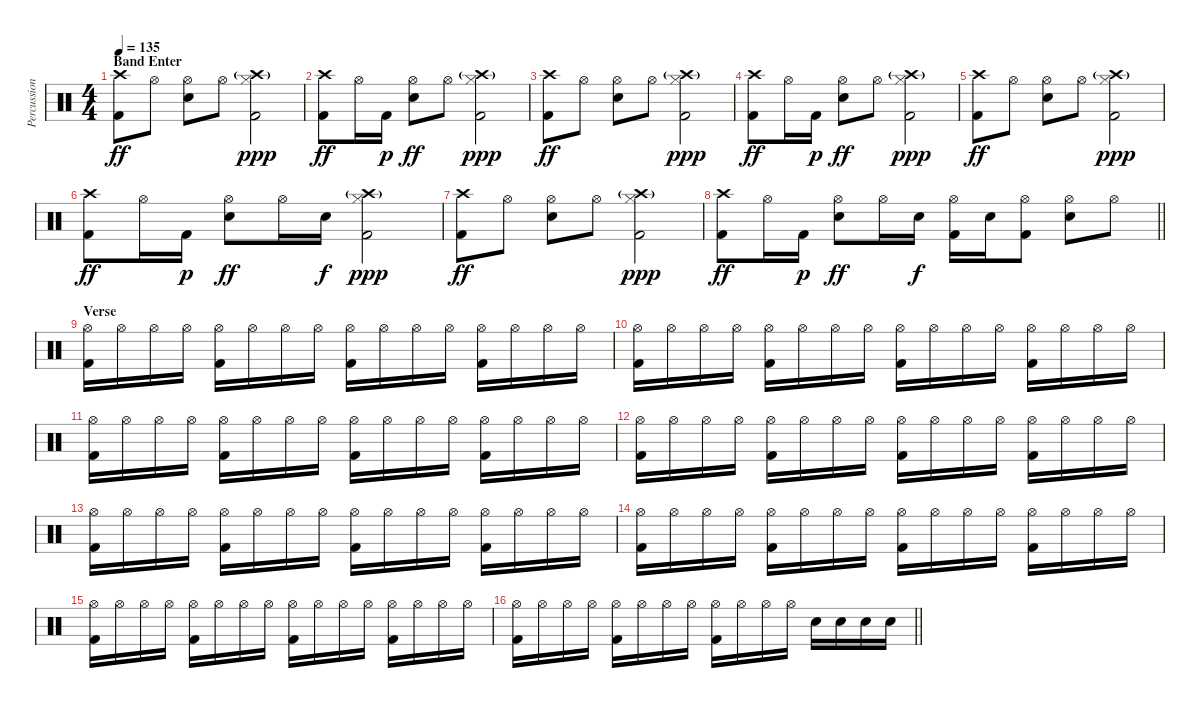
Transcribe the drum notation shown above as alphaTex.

\track ("Percussion" "Percussion") {instrument percussion}
\staff {score}
\articulation defaults
\ts (4 4)
\section ("" "Band Enter")
\tempo 135
\clef neutral
\ks c
("Crash high (hit)" "Kick (hit) 2").8{dy ff} "Hi-Hat (open)".8 ("Hi-Hat (open)" "Electric Snare (hit)").8 "Hi-Hat (open)".8 ("Crash high (hit)"{g} "Hi-Hat (closed)" "Kick (hit) 2").2{dy ppp} |
("Crash high (hit)" "Kick (hit) 2").8{dy ff} "Hi-Hat (open)".16 "Kick (hit) 2".16{dy p} ("Hi-Hat (open)" "Electric Snare (hit)").8{dy ff} "Hi-Hat (open)".8 ("Crash high (hit)"{g} "Hi-Hat (closed)" "Kick (hit) 2").2{dy ppp} |
("Crash high (hit)" "Kick (hit) 2").8{dy ff} "Hi-Hat (open)".8 ("Hi-Hat (open)" "Electric Snare (hit)").8 "Hi-Hat (open)".8 ("Crash high (hit)"{g} "Hi-Hat (closed)" "Kick (hit) 2").2{dy ppp} |
("Crash high (hit)" "Kick (hit) 2").8{dy ff} "Hi-Hat (open)".16 "Kick (hit) 2".16{dy p} ("Hi-Hat (open)" "Electric Snare (hit)").8{dy ff} "Hi-Hat (open)".8 ("Crash high (hit)"{g} "Hi-Hat (closed)" "Kick (hit) 2").2{dy ppp} |
("Crash high (hit)" "Kick (hit) 2").8{dy ff} "Hi-Hat (open)".8 ("Hi-Hat (open)" "Electric Snare (hit)").8 "Hi-Hat (open)".8 ("Crash high (hit)"{g} "Hi-Hat (closed)" "Kick (hit) 2").2{dy ppp} |
("Crash high (hit)" "Kick (hit) 2").8{dy ff} "Hi-Hat (open)".16 "Kick (hit) 2".16{dy p} ("Hi-Hat (open)" "Electric Snare (hit)").8{dy ff} "Hi-Hat (open)".16 "Electric Snare (hit)".16{dy f} ("Crash high (hit)"{g} "Hi-Hat (closed)" "Kick (hit) 2").2{dy ppp} |
("Crash high (hit)" "Kick (hit) 2").8{dy ff} "Hi-Hat (open)".8 ("Hi-Hat (open)" "Electric Snare (hit)").8 "Hi-Hat (open)".8 ("Crash high (hit)"{g} "Hi-Hat (closed)" "Kick (hit) 2").2{dy ppp} |
\barLineRight lightlight
("Crash high (hit)" "Kick (hit) 2").8{dy ff} "Hi-Hat (open)".16 "Kick (hit) 2".16{dy p} ("Hi-Hat (open)" "Electric Snare (hit)").8{dy ff} "Hi-Hat (open)".16 "Electric Snare (hit)".16{dy f} ("Hi-Hat (open)" "Kick (hit) 2").16 "Electric Snare (hit)".16 ("Hi-Hat (open)" "Kick (hit) 2").8 ("Hi-Hat (open)" "Electric Snare (hit)").8 "Hi-Hat (open)".8 |
\section ("" "Verse")
("Hi-Hat (open)" "Kick (hit) 2").16 "Hi-Hat (open)".16 "Hi-Hat (open)".16 "Hi-Hat (open)".16 ("Hi-Hat (open)" "Kick (hit) 2").16 "Hi-Hat (open)".16 "Hi-Hat (open)".16 "Hi-Hat (open)".16 ("Hi-Hat (open)" "Kick (hit) 2").16 "Hi-Hat (open)".16 "Hi-Hat (open)".16 "Hi-Hat (open)".16 ("Hi-Hat (open)" "Kick (hit) 2").16 "Hi-Hat (open)".16 "Hi-Hat (open)".16 "Hi-Hat (open)".16 |
("Hi-Hat (open)" "Kick (hit) 2").16 "Hi-Hat (open)".16 "Hi-Hat (open)".16 "Hi-Hat (open)".16 ("Hi-Hat (open)" "Kick (hit) 2").16 "Hi-Hat (open)".16 "Hi-Hat (open)".16 "Hi-Hat (open)".16 ("Hi-Hat (open)" "Kick (hit) 2").16 "Hi-Hat (open)".16 "Hi-Hat (open)".16 "Hi-Hat (open)".16 ("Hi-Hat (open)" "Kick (hit) 2").16 "Hi-Hat (open)".16 "Hi-Hat (open)".16 "Hi-Hat (open)".16 |
("Hi-Hat (open)" "Kick (hit) 2").16 "Hi-Hat (open)".16 "Hi-Hat (open)".16 "Hi-Hat (open)".16 ("Hi-Hat (open)" "Kick (hit) 2").16 "Hi-Hat (open)".16 "Hi-Hat (open)".16 "Hi-Hat (open)".16 ("Hi-Hat (open)" "Kick (hit) 2").16 "Hi-Hat (open)".16 "Hi-Hat (open)".16 "Hi-Hat (open)".16 ("Hi-Hat (open)" "Kick (hit) 2").16 "Hi-Hat (open)".16 "Hi-Hat (open)".16 "Hi-Hat (open)".16 |
("Hi-Hat (open)" "Kick (hit) 2").16 "Hi-Hat (open)".16 "Hi-Hat (open)".16 "Hi-Hat (open)".16 ("Hi-Hat (open)" "Kick (hit) 2").16 "Hi-Hat (open)".16 "Hi-Hat (open)".16 "Hi-Hat (open)".16 ("Hi-Hat (open)" "Kick (hit) 2").16 "Hi-Hat (open)".16 "Hi-Hat (open)".16 "Hi-Hat (open)".16 ("Hi-Hat (open)" "Kick (hit) 2").16 "Hi-Hat (open)".16 "Hi-Hat (open)".16 "Hi-Hat (open)".16 |
("Hi-Hat (open)" "Kick (hit) 2").16 "Hi-Hat (open)".16 "Hi-Hat (open)".16 "Hi-Hat (open)".16 ("Hi-Hat (open)" "Kick (hit) 2").16 "Hi-Hat (open)".16 "Hi-Hat (open)".16 "Hi-Hat (open)".16 ("Hi-Hat (open)" "Kick (hit) 2").16 "Hi-Hat (open)".16 "Hi-Hat (open)".16 "Hi-Hat (open)".16 ("Hi-Hat (open)" "Kick (hit) 2").16 "Hi-Hat (open)".16 "Hi-Hat (open)".16 "Hi-Hat (open)".16 |
("Hi-Hat (open)" "Kick (hit) 2").16 "Hi-Hat (open)".16 "Hi-Hat (open)".16 "Hi-Hat (open)".16 ("Hi-Hat (open)" "Kick (hit) 2").16 "Hi-Hat (open)".16 "Hi-Hat (open)".16 "Hi-Hat (open)".16 ("Hi-Hat (open)" "Kick (hit) 2").16 "Hi-Hat (open)".16 "Hi-Hat (open)".16 "Hi-Hat (open)".16 ("Hi-Hat (open)" "Kick (hit) 2").16 "Hi-Hat (open)".16 "Hi-Hat (open)".16 "Hi-Hat (open)".16 |
("Hi-Hat (open)" "Kick (hit) 2").16 "Hi-Hat (open)".16 "Hi-Hat (open)".16 "Hi-Hat (open)".16 ("Hi-Hat (open)" "Kick (hit) 2").16 "Hi-Hat (open)".16 "Hi-Hat (open)".16 "Hi-Hat (open)".16 ("Hi-Hat (open)" "Kick (hit) 2").16 "Hi-Hat (open)".16 "Hi-Hat (open)".16 "Hi-Hat (open)".16 ("Hi-Hat (open)" "Kick (hit) 2").16 "Hi-Hat (open)".16 "Hi-Hat (open)".16 "Hi-Hat (open)".16 |
\barLineRight lightlight
("Hi-Hat (open)" "Kick (hit) 2").16 "Hi-Hat (open)".16 "Hi-Hat (open)".16 "Hi-Hat (open)".16 ("Hi-Hat (open)" "Kick (hit) 2").16 "Hi-Hat (open)".16 "Hi-Hat (open)".16 "Hi-Hat (open)".16 ("Hi-Hat (open)" "Kick (hit) 2").16 "Hi-Hat (open)".16 "Hi-Hat (open)".16 "Hi-Hat (open)".16 "Electric Snare (hit)".16 "Electric Snare (hit)".16 "Electric Snare (hit)".16 "Electric Snare (hit)".16
